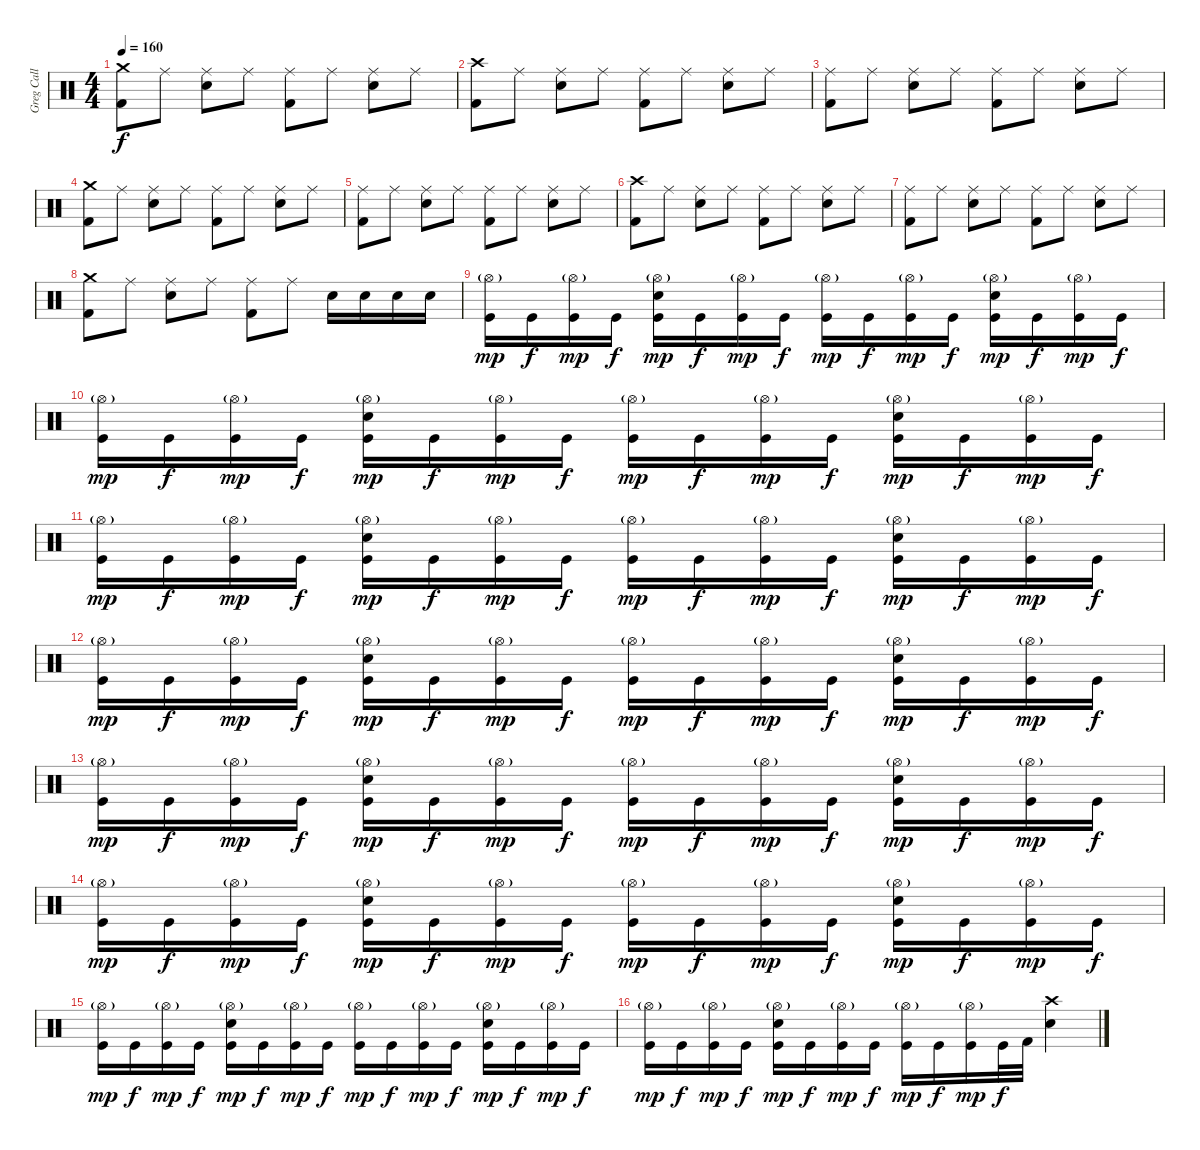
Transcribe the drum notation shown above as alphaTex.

\track ("Greg Call (Drums)" "Greg Call ") {instrument percussion}
\staff {score}
\articulation defaults
\ts (4 4)
\tempo 160
\clef neutral
\ks c
("Crash medium (hit)" "Kick (hit) 2").8{dy f} "Ride (middle)".8 ("Ride (middle)" "Electric Snare (hit)").8 "Ride (middle)".8 ("Ride (middle)" "Kick (hit) 2").8 "Ride (middle)".8 ("Ride (middle)" "Electric Snare (hit)").8 "Ride (middle)".8 |
("Crash high (hit)" "Kick (hit) 2").8 "Ride (middle)".8 ("Ride (middle)" "Electric Snare (hit)").8 "Ride (middle)".8 ("Ride (middle)" "Kick (hit) 2").8 "Ride (middle)".8 ("Ride (middle)" "Electric Snare (hit)").8 "Ride (middle)".8 |
("Ride (middle)" "Kick (hit) 2").8 "Ride (middle)".8 ("Ride (middle)" "Electric Snare (hit)").8 "Ride (middle)".8 ("Ride (middle)" "Kick (hit) 2").8 "Ride (middle)".8 ("Ride (middle)" "Electric Snare (hit)").8 "Ride (middle)".8 |
("Crash medium (hit)" "Kick (hit) 2").8 "Ride (middle)".8 ("Ride (middle)" "Electric Snare (hit)").8 "Ride (middle)".8 ("Ride (middle)" "Kick (hit) 2").8 "Ride (middle)".8 ("Ride (middle)" "Electric Snare (hit)").8 "Ride (middle)".8 |
("Ride (middle)" "Kick (hit) 2").8 "Ride (middle)".8 ("Ride (middle)" "Electric Snare (hit)").8 "Ride (middle)".8 ("Ride (middle)" "Kick (hit) 2").8 "Ride (middle)".8 ("Ride (middle)" "Electric Snare (hit)").8 "Ride (middle)".8 |
("Crash high (hit)" "Kick (hit) 2").8 "Ride (middle)".8 ("Ride (middle)" "Electric Snare (hit)").8 "Ride (middle)".8 ("Ride (middle)" "Kick (hit) 2").8 "Ride (middle)".8 ("Ride (middle)" "Electric Snare (hit)").8 "Ride (middle)".8 |
("Ride (middle)" "Kick (hit) 2").8 "Ride (middle)".8 ("Ride (middle)" "Electric Snare (hit)").8 "Ride (middle)".8 ("Ride (middle)" "Kick (hit) 2").8 "Ride (middle)".8 ("Ride (middle)" "Electric Snare (hit)").8 "Ride (middle)".8 |
("Crash medium (hit)" "Kick (hit) 2").8 "Ride (middle)".8 ("Ride (middle)" "Electric Snare (hit)").8 "Ride (middle)".8{volume 16} ("Ride (middle)" "Kick (hit) 2").8 "Ride (middle)".8 "Electric Snare (hit)".16 "Electric Snare (hit)".16 "Electric Snare (hit)".16 "Electric Snare (hit)".16 |
("Hi-Hat (open)"{g} "Kick (hit)").16{dy mp volume 12 balance 8} "Kick (hit)".16{dy f} ("Hi-Hat (open)"{g} "Kick (hit)").16{dy mp} "Kick (hit)".16{dy f} ("Hi-Hat (open)"{g} "Electric Snare (hit)" "Kick (hit)").16{dy mp} "Kick (hit)".16{dy f} ("Hi-Hat (open)"{g} "Kick (hit)").16{dy mp} "Kick (hit)".16{dy f} ("Hi-Hat (open)"{g} "Kick (hit)").16{dy mp} "Kick (hit)".16{dy f} ("Hi-Hat (open)"{g} "Kick (hit)").16{dy mp} "Kick (hit)".16{dy f} ("Hi-Hat (open)"{g} "Electric Snare (hit)" "Kick (hit)").16{dy mp} "Kick (hit)".16{dy f} ("Hi-Hat (open)"{g} "Kick (hit)").16{dy mp} "Kick (hit)".16{dy f} |
("Hi-Hat (open)"{g} "Kick (hit)").16{dy mp} "Kick (hit)".16{dy f} ("Hi-Hat (open)"{g} "Kick (hit)").16{dy mp} "Kick (hit)".16{dy f} ("Hi-Hat (open)"{g} "Electric Snare (hit)" "Kick (hit)").16{dy mp} "Kick (hit)".16{dy f} ("Hi-Hat (open)"{g} "Kick (hit)").16{dy mp} "Kick (hit)".16{dy f} ("Hi-Hat (open)"{g} "Kick (hit)").16{dy mp} "Kick (hit)".16{dy f} ("Hi-Hat (open)"{g} "Kick (hit)").16{dy mp} "Kick (hit)".16{dy f} ("Hi-Hat (open)"{g} "Electric Snare (hit)" "Kick (hit)").16{dy mp} "Kick (hit)".16{dy f} ("Hi-Hat (open)"{g} "Kick (hit)").16{dy mp} "Kick (hit)".16{dy f} |
("Hi-Hat (open)"{g} "Kick (hit)").16{dy mp} "Kick (hit)".16{dy f} ("Hi-Hat (open)"{g} "Kick (hit)").16{dy mp} "Kick (hit)".16{dy f} ("Hi-Hat (open)"{g} "Electric Snare (hit)" "Kick (hit)").16{dy mp} "Kick (hit)".16{dy f} ("Hi-Hat (open)"{g} "Kick (hit)").16{dy mp} "Kick (hit)".16{dy f} ("Hi-Hat (open)"{g} "Kick (hit)").16{dy mp} "Kick (hit)".16{dy f} ("Hi-Hat (open)"{g} "Kick (hit)").16{dy mp} "Kick (hit)".16{dy f} ("Hi-Hat (open)"{g} "Electric Snare (hit)" "Kick (hit)").16{dy mp} "Kick (hit)".16{dy f} ("Hi-Hat (open)"{g} "Kick (hit)").16{dy mp} "Kick (hit)".16{dy f} |
("Hi-Hat (open)"{g} "Kick (hit)").16{dy mp} "Kick (hit)".16{dy f} ("Hi-Hat (open)"{g} "Kick (hit)").16{dy mp} "Kick (hit)".16{dy f} ("Hi-Hat (open)"{g} "Electric Snare (hit)" "Kick (hit)").16{dy mp} "Kick (hit)".16{dy f} ("Hi-Hat (open)"{g} "Kick (hit)").16{dy mp} "Kick (hit)".16{dy f} ("Hi-Hat (open)"{g} "Kick (hit)").16{dy mp} "Kick (hit)".16{dy f} ("Hi-Hat (open)"{g} "Kick (hit)").16{dy mp} "Kick (hit)".16{dy f} ("Hi-Hat (open)"{g} "Electric Snare (hit)" "Kick (hit)").16{dy mp} "Kick (hit)".16{dy f} ("Hi-Hat (open)"{g} "Kick (hit)").16{dy mp} "Kick (hit)".16{dy f} |
("Hi-Hat (open)"{g} "Kick (hit)").16{dy mp} "Kick (hit)".16{dy f} ("Hi-Hat (open)"{g} "Kick (hit)").16{dy mp} "Kick (hit)".16{dy f} ("Hi-Hat (open)"{g} "Electric Snare (hit)" "Kick (hit)").16{dy mp} "Kick (hit)".16{dy f} ("Hi-Hat (open)"{g} "Kick (hit)").16{dy mp} "Kick (hit)".16{dy f} ("Hi-Hat (open)"{g} "Kick (hit)").16{dy mp} "Kick (hit)".16{dy f} ("Hi-Hat (open)"{g} "Kick (hit)").16{dy mp} "Kick (hit)".16{dy f} ("Hi-Hat (open)"{g} "Electric Snare (hit)" "Kick (hit)").16{dy mp} "Kick (hit)".16{dy f} ("Hi-Hat (open)"{g} "Kick (hit)").16{dy mp} "Kick (hit)".16{dy f} |
("Hi-Hat (open)"{g} "Kick (hit)").16{dy mp} "Kick (hit)".16{dy f} ("Hi-Hat (open)"{g} "Kick (hit)").16{dy mp} "Kick (hit)".16{dy f} ("Hi-Hat (open)"{g} "Electric Snare (hit)" "Kick (hit)").16{dy mp} "Kick (hit)".16{dy f} ("Hi-Hat (open)"{g} "Kick (hit)").16{dy mp} "Kick (hit)".16{dy f} ("Hi-Hat (open)"{g} "Kick (hit)").16{dy mp} "Kick (hit)".16{dy f} ("Hi-Hat (open)"{g} "Kick (hit)").16{dy mp} "Kick (hit)".16{dy f} ("Hi-Hat (open)"{g} "Electric Snare (hit)" "Kick (hit)").16{dy mp} "Kick (hit)".16{dy f} ("Hi-Hat (open)"{g} "Kick (hit)").16{dy mp} "Kick (hit)".16{dy f} |
("Hi-Hat (open)"{g} "Kick (hit)").16{dy mp} "Kick (hit)".16{dy f} ("Hi-Hat (open)"{g} "Kick (hit)").16{dy mp} "Kick (hit)".16{dy f} ("Hi-Hat (open)"{g} "Electric Snare (hit)" "Kick (hit)").16{dy mp} "Kick (hit)".16{dy f} ("Hi-Hat (open)"{g} "Kick (hit)").16{dy mp} "Kick (hit)".16{dy f} ("Hi-Hat (open)"{g} "Kick (hit)").16{dy mp} "Kick (hit)".16{dy f} ("Hi-Hat (open)"{g} "Kick (hit)").16{dy mp} "Kick (hit)".16{dy f} ("Hi-Hat (open)"{g} "Electric Snare (hit)" "Kick (hit)").16{dy mp} "Kick (hit)".16{dy f} ("Hi-Hat (open)"{g} "Kick (hit)").16{dy mp} "Kick (hit)".16{dy f} |
("Hi-Hat (open)"{g} "Kick (hit)").16{dy mp} "Kick (hit)".16{dy f} ("Hi-Hat (open)"{g} "Kick (hit)").16{dy mp} "Kick (hit)".16{dy f} ("Hi-Hat (open)"{g} "Electric Snare (hit)" "Kick (hit)").16{dy mp} "Kick (hit)".16{dy f} ("Hi-Hat (open)"{g} "Kick (hit)").16{dy mp} "Kick (hit)".16{dy f} ("Hi-Hat (open)"{g} "Kick (hit)").16{dy mp} "Kick (hit)".16{dy f} ("Hi-Hat (open)"{g} "Kick (hit)").16{dy mp} "Kick (hit)".32{dy f} "Kick (hit) 2".32 ("Crash high (hit)" "Electric Snare (hit)").4
